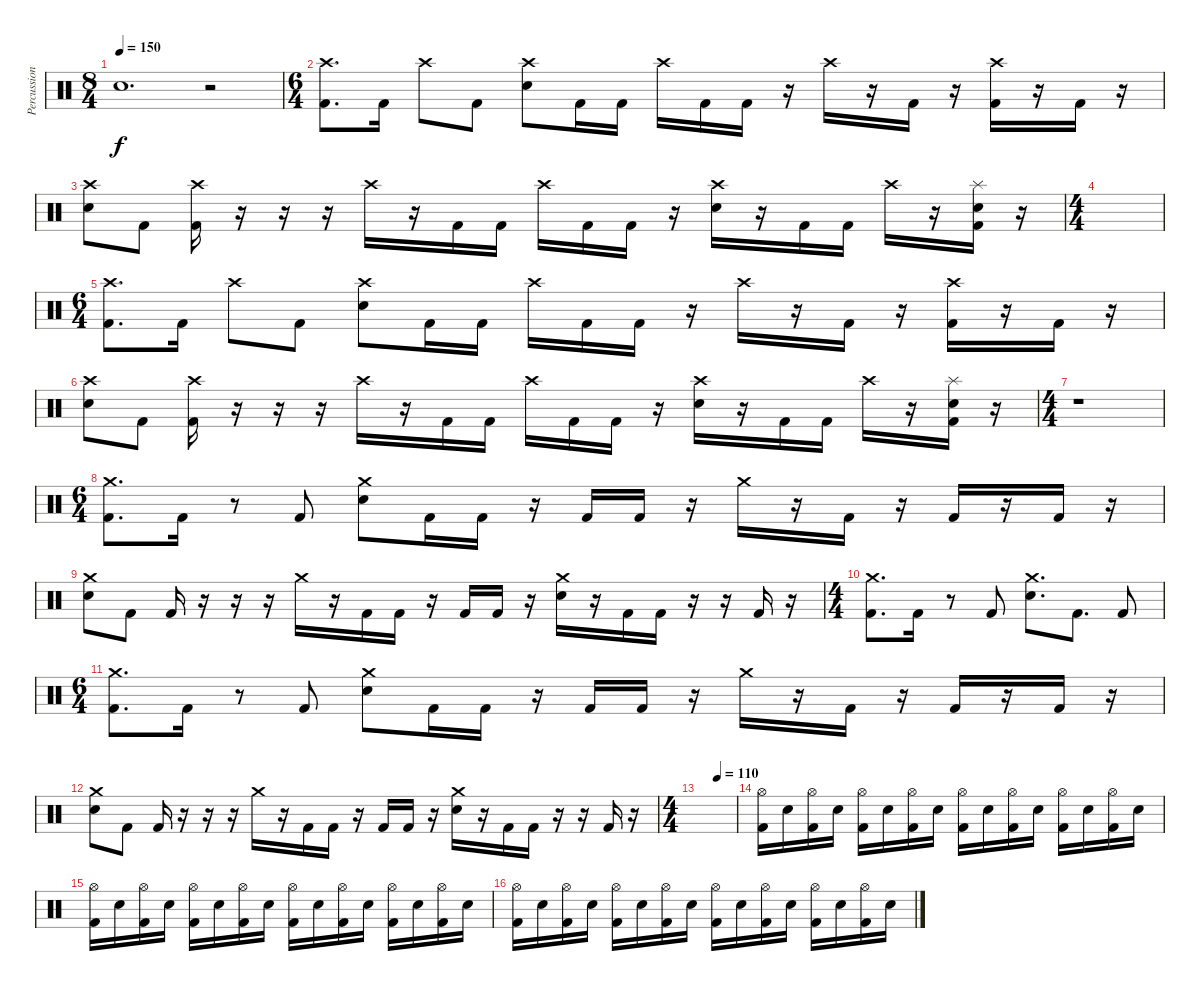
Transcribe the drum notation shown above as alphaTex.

\track ("Percussion" "Percussion") {instrument percussion}
\staff {score}
\articulation defaults
\ts (8 4)
\tempo 150
\clef neutral
\ks c "Electric Snare (hit)".1{d dy f}
r.2 |
\ts (6 4)
("Crash high (hit)" "Kick (hit) 2").8{d} "Kick (hit) 2".16 "Crash high (hit)".8 "Kick (hit) 2".8 ("Crash high (hit)" "Electric Snare (hit)").8 "Kick (hit) 2".16 "Kick (hit) 2".16 "Crash high (hit)".16 "Kick (hit) 2".16 "Kick (hit) 2".16 r.16 "Crash high (hit)".16 r.16 "Kick (hit) 2".16 r.16 ("Crash high (hit)" "Kick (hit) 2").16 r.16 "Kick (hit) 2".16 r.16 |
("Crash high (hit)" "Electric Snare (hit)").8 "Kick (hit) 2".8 ("Crash high (hit)" "Kick (hit) 2").16 r.16 r.16 r.16 "Crash high (hit)".16 r.16 "Kick (hit) 2".16 "Kick (hit) 2".16 "Crash high (hit)".16 "Kick (hit) 2".16 "Kick (hit) 2".16 r.16 ("Crash high (hit)" "Electric Snare (hit)").16 r.16 "Kick (hit) 2".16 "Kick (hit) 2".16 "Crash high (hit)".16 r.16 ("Splash (hit)" "Electric Snare (hit)" "Kick (hit) 2").16 r.16 |
\ts (4 4)
|
\ts (6 4)
("Crash high (hit)" "Kick (hit) 2").8{d} "Kick (hit) 2".16 "Crash high (hit)".8 "Kick (hit) 2".8 ("Crash high (hit)" "Electric Snare (hit)").8 "Kick (hit) 2".16 "Kick (hit) 2".16 "Crash high (hit)".16 "Kick (hit) 2".16 "Kick (hit) 2".16 r.16 "Crash high (hit)".16 r.16 "Kick (hit) 2".16 r.16 ("Crash high (hit)" "Kick (hit) 2").16 r.16 "Kick (hit) 2".16 r.16 |
("Crash high (hit)" "Electric Snare (hit)").8 "Kick (hit) 2".8 ("Crash high (hit)" "Kick (hit) 2").16 r.16 r.16 r.16 "Crash high (hit)".16 r.16 "Kick (hit) 2".16 "Kick (hit) 2".16 "Crash high (hit)".16 "Kick (hit) 2".16 "Kick (hit) 2".16 r.16 ("Crash high (hit)" "Electric Snare (hit)").16 r.16 "Kick (hit) 2".16 "Kick (hit) 2".16 "Crash high (hit)".16 r.16 ("Splash (hit)" "Electric Snare (hit)" "Kick (hit) 2").16 r.16 |
\ts (4 4)
r.1 |
\ts (6 4)
("Crash medium (hit)" "Kick (hit) 2").8{d} "Kick (hit) 2".16 r.8 "Kick (hit) 2".8 ("Crash medium (hit)" "Electric Snare (hit)").8 "Kick (hit) 2".16 "Kick (hit) 2".16 r.16 "Kick (hit) 2".16 "Kick (hit) 2".16 r.16 "Crash medium (hit)".16 r.16 "Kick (hit) 2".16 r.16 "Kick (hit) 2".16 r.16 "Kick (hit) 2".16 r.16 |
("Crash medium (hit)" "Electric Snare (hit)").8 "Kick (hit) 2".8 "Kick (hit) 2".16 r.16 r.16 r.16 "Crash medium (hit)".16 r.16 "Kick (hit) 2".16 "Kick (hit) 2".16 r.16 "Kick (hit) 2".16 "Kick (hit) 2".16 r.16 ("Crash medium (hit)" "Electric Snare (hit)").16 r.16 "Kick (hit) 2".16 "Kick (hit) 2".16 r.16 r.16 "Kick (hit) 2".16 r.16 |
\ts (4 4)
("Crash medium (hit)" "Kick (hit) 2").8{d} "Kick (hit) 2".16 r.8 "Kick (hit) 2".8 ("Crash medium (hit)" "Electric Snare (hit)").8{d} "Kick (hit) 2".8{d} "Kick (hit) 2".8 |
\ts (6 4)
("Crash medium (hit)" "Kick (hit) 2").8{d} "Kick (hit) 2".16 r.8 "Kick (hit) 2".8 ("Crash medium (hit)" "Electric Snare (hit)").8 "Kick (hit) 2".16 "Kick (hit) 2".16 r.16 "Kick (hit) 2".16 "Kick (hit) 2".16 r.16 "Crash medium (hit)".16 r.16 "Kick (hit) 2".16 r.16 "Kick (hit) 2".16 r.16 "Kick (hit) 2".16 r.16 |
("Crash medium (hit)" "Electric Snare (hit)").8 "Kick (hit) 2".8 "Kick (hit) 2".16 r.16 r.16 r.16 "Crash medium (hit)".16 r.16 "Kick (hit) 2".16 "Kick (hit) 2".16 r.16 "Kick (hit) 2".16 "Kick (hit) 2".16 r.16 ("Crash medium (hit)" "Electric Snare (hit)").16 r.16 "Kick (hit) 2".16 "Kick (hit) 2".16 r.16 r.16 "Kick (hit) 2".16 r.16 |
\ts (4 4)
\tempo (110 0.5)
|
("Hi-Hat (open)" "Kick (hit) 2").16 "Electric Snare (hit)".16 ("Hi-Hat (open)" "Kick (hit) 2").16 "Electric Snare (hit)".16 ("Hi-Hat (open)" "Kick (hit) 2").16 "Electric Snare (hit)".16 ("Hi-Hat (open)" "Kick (hit) 2").16 "Electric Snare (hit)".16 ("Hi-Hat (open)" "Kick (hit) 2").16 "Electric Snare (hit)".16 ("Hi-Hat (open)" "Kick (hit) 2").16 "Electric Snare (hit)".16 ("Hi-Hat (open)" "Kick (hit) 2").16 "Electric Snare (hit)".16 ("Hi-Hat (open)" "Kick (hit) 2").16 "Electric Snare (hit)".16 |
("Hi-Hat (open)" "Kick (hit) 2").16 "Electric Snare (hit)".16 ("Hi-Hat (open)" "Kick (hit) 2").16 "Electric Snare (hit)".16 ("Hi-Hat (open)" "Kick (hit) 2").16 "Electric Snare (hit)".16 ("Hi-Hat (open)" "Kick (hit) 2").16 "Electric Snare (hit)".16 ("Hi-Hat (open)" "Kick (hit) 2").16 "Electric Snare (hit)".16 ("Hi-Hat (open)" "Kick (hit) 2").16 "Electric Snare (hit)".16 ("Hi-Hat (open)" "Kick (hit) 2").16 "Electric Snare (hit)".16 ("Hi-Hat (open)" "Kick (hit) 2").16 "Electric Snare (hit)".16 |
("Hi-Hat (open)" "Kick (hit) 2").16 "Electric Snare (hit)".16 ("Hi-Hat (open)" "Kick (hit) 2").16 "Electric Snare (hit)".16 ("Hi-Hat (open)" "Kick (hit) 2").16 "Electric Snare (hit)".16 ("Hi-Hat (open)" "Kick (hit) 2").16 "Electric Snare (hit)".16 ("Hi-Hat (open)" "Kick (hit) 2").16 "Electric Snare (hit)".16 ("Hi-Hat (open)" "Kick (hit) 2").16 "Electric Snare (hit)".16 ("Hi-Hat (open)" "Kick (hit) 2").16 "Electric Snare (hit)".16 ("Hi-Hat (open)" "Kick (hit) 2").16 "Electric Snare (hit)".16
